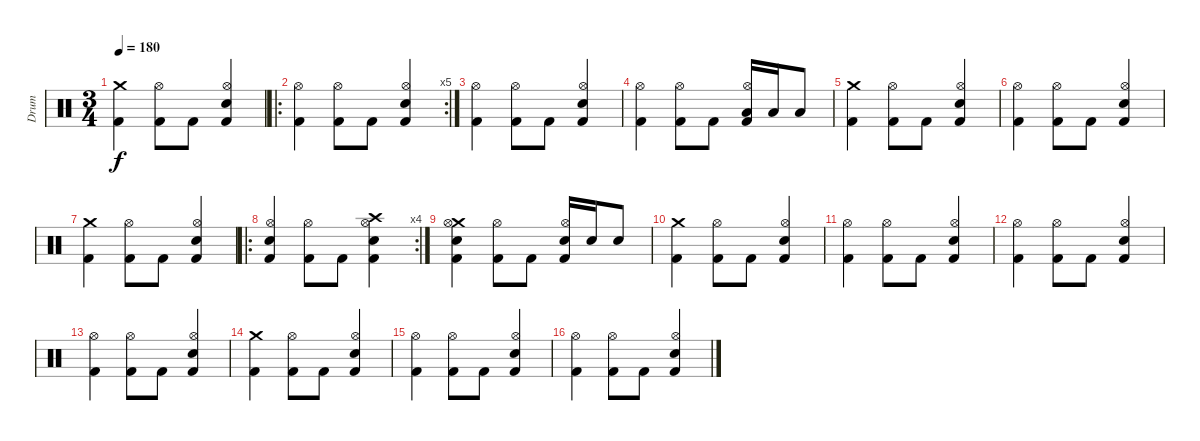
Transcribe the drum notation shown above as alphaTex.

\track ("Drum" "Drum") {instrument percussion}
\staff {score}
\articulation defaults
\ts (3 4)
\tempo 180
\clef neutral
\ks c
("Crash medium (hit)" "Kick (hit) 2").4{dy f} ("Hi-Hat (open)" "Kick (hit) 2").8 "Kick (hit) 2".8 ("Hi-Hat (open)" "Electric Snare (hit)" "Kick (hit) 2").4 |
\ro
\rc 5
("Hi-Hat (open)" "Kick (hit) 2").4 ("Hi-Hat (open)" "Kick (hit) 2").8 "Kick (hit) 2".8 ("Hi-Hat (open)" "Electric Snare (hit)" "Kick (hit) 2").4 |
("Hi-Hat (open)" "Kick (hit) 2").4 ("Hi-Hat (open)" "Kick (hit) 2").8 "Kick (hit) 2".8 ("Hi-Hat (open)" "Electric Snare (hit)" "Kick (hit) 2").4 |
("Hi-Hat (open)" "Kick (hit) 2").4 ("Hi-Hat (open)" "Kick (hit) 2").8 "Kick (hit) 2".8 ("Hi-Hat (open)" "Low Tom (hit)" "Kick (hit) 2").16 "Low Tom (hit)".16 "Low Tom (hit)".8 |
("Crash medium (hit)" "Kick (hit) 2").4 ("Hi-Hat (open)" "Kick (hit) 2").8 "Kick (hit) 2".8 ("Hi-Hat (open)" "Electric Snare (hit)" "Kick (hit) 2").4 |
("Hi-Hat (open)" "Kick (hit) 2").4 ("Hi-Hat (open)" "Kick (hit) 2").8 "Kick (hit) 2".8 ("Hi-Hat (open)" "Electric Snare (hit)" "Kick (hit) 2").4 |
("Crash medium (hit)" "Kick (hit) 2").4 ("Hi-Hat (open)" "Kick (hit) 2").8 "Kick (hit) 2".8 ("Hi-Hat (open)" "Electric Snare (hit)" "Kick (hit) 2").4 |
\ro
\rc 4
("Hi-Hat (open)" "Electric Snare (hit)" "Kick (hit) 2").4 ("Hi-Hat (open)" "Kick (hit) 2").8 "Kick (hit) 2".8 ("Crash high (hit)" "Hi-Hat (open)" "Electric Snare (hit)" "Kick (hit) 2").4 |
("Crash medium (hit)" "Hi-Hat (open)" "Electric Snare (hit)" "Kick (hit) 2").4 ("Hi-Hat (open)" "Kick (hit) 2").8 "Kick (hit) 2".8 ("Hi-Hat (open)" "Electric Snare (hit)" "Kick (hit) 2").16 "Electric Snare (hit)".16 "Electric Snare (hit)".8 |
("Crash medium (hit)" "Kick (hit) 2").4 ("Hi-Hat (open)" "Kick (hit) 2").8 "Kick (hit) 2".8 ("Hi-Hat (open)" "Electric Snare (hit)" "Kick (hit) 2").4 |
("Hi-Hat (open)" "Kick (hit) 2").4 ("Hi-Hat (open)" "Kick (hit) 2").8 "Kick (hit) 2".8 ("Hi-Hat (open)" "Electric Snare (hit)" "Kick (hit) 2").4 |
("Hi-Hat (open)" "Kick (hit) 2").4 ("Hi-Hat (open)" "Kick (hit) 2").8 "Kick (hit) 2".8 ("Hi-Hat (open)" "Electric Snare (hit)" "Kick (hit) 2").4 |
("Hi-Hat (open)" "Kick (hit) 2").4 ("Hi-Hat (open)" "Kick (hit) 2").8 "Kick (hit) 2".8 ("Hi-Hat (open)" "Electric Snare (hit)" "Kick (hit) 2").4 |
("Crash medium (hit)" "Kick (hit) 2").4 ("Hi-Hat (open)" "Kick (hit) 2").8 "Kick (hit) 2".8 ("Hi-Hat (open)" "Electric Snare (hit)" "Kick (hit) 2").4 |
("Hi-Hat (open)" "Kick (hit) 2").4 ("Hi-Hat (open)" "Kick (hit) 2").8 "Kick (hit) 2".8 ("Hi-Hat (open)" "Electric Snare (hit)" "Kick (hit) 2").4 |
("Hi-Hat (open)" "Kick (hit) 2").4 ("Hi-Hat (open)" "Kick (hit) 2").8 "Kick (hit) 2".8 ("Hi-Hat (open)" "Electric Snare (hit)" "Kick (hit) 2").4
